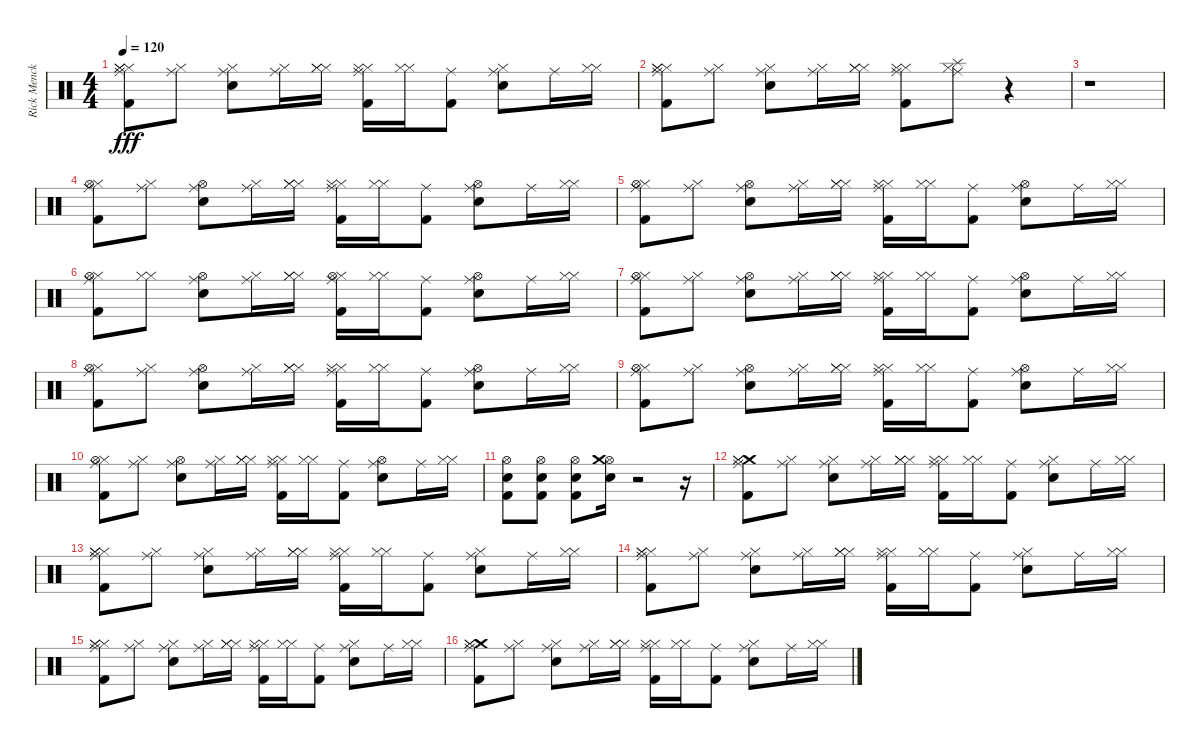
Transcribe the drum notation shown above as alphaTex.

\track ("Rick Menck" "Rick Menck") {instrument percussion}
\staff {score}
\articulation defaults
\ts (4 4)
\tempo 120
\clef neutral
\ks c
("Ride (middle)" "Hi-Hat (closed)" "Kick (hit) 2" "Hi-Hat (closed)" "Hi-Hat (closed)").8{dy fff} ("Ride (middle)" "Hi-Hat (closed)").8 ("Ride (middle)" "Snare (hit) 2" "Hi-Hat (closed)").8 ("Ride (middle)" "Hi-Hat (closed)").16 ("Hi-Hat (closed)" "Hi-Hat (closed)" "Hi-Hat (closed)").16 ("Ride (middle)" "Kick (hit) 2" "Hi-Hat (closed)" "Hi-Hat (closed)").16 ("Hi-Hat (closed)" "Hi-Hat (closed)").16 ("Ride (middle)" "Kick (hit) 2").8 ("Ride (middle)" "Snare (hit) 2" "Hi-Hat (closed)").8 "Ride (middle)".16 ("Hi-Hat (closed)" "Hi-Hat (closed)").16 |
("Ride (middle)" "Hi-Hat (closed)" "Kick (hit) 2" "Hi-Hat (closed)" "Hi-Hat (closed)").8 ("Ride (middle)" "Hi-Hat (closed)").8 ("Ride (middle)" "Snare (hit) 2" "Hi-Hat (closed)").8 ("Ride (middle)" "Hi-Hat (closed)").16 ("Hi-Hat (closed)" "Hi-Hat (closed)" "Hi-Hat (closed)").16 ("Ride (middle)" "Kick (hit) 2" "Hi-Hat (closed)" "Hi-Hat (closed)").8 ("Ride (middle)" "Hi-Hat (closed)" "Splash (hit)").8 r.4 |
r.1 |
("Ride (middle)" "Kick (hit) 2" "Hi-Hat (closed)" "Hi-Hat (open)").8 ("Ride (middle)" "Hi-Hat (closed)").8 ("Ride (middle)" "Snare (hit) 2" "Hi-Hat (open)").8 ("Ride (middle)" "Hi-Hat (closed)").16 ("Hi-Hat (closed)" "Hi-Hat (closed)" "Hi-Hat (closed)").16 ("Ride (middle)" "Kick (hit) 2" "Hi-Hat (closed)" "Hi-Hat (closed)").16 ("Hi-Hat (closed)" "Hi-Hat (closed)").16 ("Ride (middle)" "Kick (hit) 2").8 ("Ride (middle)" "Snare (hit) 2" "Hi-Hat (open)").8 "Ride (middle)".16 ("Hi-Hat (closed)" "Hi-Hat (closed)").16 |
("Ride (middle)" "Kick (hit) 2" "Hi-Hat (closed)" "Hi-Hat (open)").8 ("Ride (middle)" "Hi-Hat (closed)").8 ("Ride (middle)" "Snare (hit) 2" "Hi-Hat (open)").8 ("Ride (middle)" "Hi-Hat (closed)").16 ("Hi-Hat (closed)" "Hi-Hat (closed)" "Hi-Hat (closed)").16 ("Ride (middle)" "Kick (hit) 2" "Hi-Hat (closed)" "Hi-Hat (closed)").16 ("Hi-Hat (closed)" "Hi-Hat (closed)").16 ("Ride (middle)" "Kick (hit) 2").8 ("Ride (middle)" "Snare (hit) 2" "Hi-Hat (open)").8 "Ride (middle)".16 ("Hi-Hat (closed)" "Hi-Hat (closed)").16 |
("Ride (middle)" "Kick (hit) 2" "Hi-Hat (closed)" "Hi-Hat (open)").8 ("Hi-Hat (closed)" "Hi-Hat (closed)").8 ("Ride (middle)" "Snare (hit) 2" "Hi-Hat (open)").8 ("Ride (middle)" "Hi-Hat (closed)").16 ("Hi-Hat (closed)" "Hi-Hat (closed)" "Hi-Hat (closed)").16 ("Ride (middle)" "Kick (hit) 2" "Hi-Hat (closed)" "Hi-Hat (open)").16 ("Hi-Hat (closed)" "Hi-Hat (closed)").16 ("Ride (middle)" "Kick (hit) 2").8 ("Ride (middle)" "Snare (hit) 2" "Hi-Hat (open)").8 "Ride (middle)".16 ("Hi-Hat (closed)" "Hi-Hat (closed)").16 |
("Ride (middle)" "Kick (hit) 2" "Hi-Hat (closed)" "Hi-Hat (open)").8 ("Ride (middle)" "Hi-Hat (closed)").8 ("Ride (middle)" "Snare (hit) 2" "Hi-Hat (open)").8 ("Ride (middle)" "Hi-Hat (closed)").16 ("Hi-Hat (closed)" "Hi-Hat (closed)" "Hi-Hat (closed)").16 ("Ride (middle)" "Kick (hit) 2" "Hi-Hat (closed)" "Hi-Hat (closed)").16 ("Hi-Hat (closed)" "Hi-Hat (closed)").16 ("Ride (middle)" "Kick (hit) 2").8 ("Ride (middle)" "Snare (hit) 2" "Hi-Hat (open)").8 "Ride (middle)".16 ("Hi-Hat (closed)" "Hi-Hat (closed)").16 |
("Ride (middle)" "Kick (hit) 2" "Hi-Hat (closed)" "Hi-Hat (open)").8 ("Ride (middle)" "Hi-Hat (closed)").8 ("Ride (middle)" "Snare (hit) 2" "Hi-Hat (open)").8 ("Ride (middle)" "Hi-Hat (closed)").16 ("Hi-Hat (closed)" "Hi-Hat (closed)" "Hi-Hat (closed)").16 ("Ride (middle)" "Kick (hit) 2" "Hi-Hat (closed)" "Hi-Hat (closed)").16 ("Hi-Hat (closed)" "Hi-Hat (closed)").16 ("Ride (middle)" "Kick (hit) 2").8 ("Ride (middle)" "Snare (hit) 2" "Hi-Hat (open)").8 "Ride (middle)".16 ("Hi-Hat (closed)" "Hi-Hat (closed)").16 |
("Ride (middle)" "Kick (hit) 2" "Hi-Hat (closed)" "Hi-Hat (open)").8 ("Ride (middle)" "Hi-Hat (closed)").8 ("Ride (middle)" "Snare (hit) 2" "Hi-Hat (open)").8 ("Ride (middle)" "Hi-Hat (closed)").16 ("Hi-Hat (closed)" "Hi-Hat (closed)" "Hi-Hat (closed)").16 ("Ride (middle)" "Kick (hit) 2" "Hi-Hat (closed)" "Hi-Hat (closed)").16 ("Hi-Hat (closed)" "Hi-Hat (closed)").16 ("Ride (middle)" "Kick (hit) 2").8 ("Ride (middle)" "Snare (hit) 2" "Hi-Hat (open)").8 "Ride (middle)".16 ("Hi-Hat (closed)" "Hi-Hat (closed)").16 |
("Ride (middle)" "Kick (hit) 2" "Hi-Hat (closed)" "Hi-Hat (open)").8 ("Ride (middle)" "Hi-Hat (closed)").8 ("Ride (middle)" "Snare (hit) 2" "Hi-Hat (open)").8 ("Ride (middle)" "Hi-Hat (closed)").16 ("Hi-Hat (closed)" "Hi-Hat (closed)" "Hi-Hat (closed)").16 ("Ride (middle)" "Kick (hit) 2" "Hi-Hat (closed)" "Hi-Hat (closed)").16 ("Hi-Hat (closed)" "Hi-Hat (closed)").16 ("Ride (middle)" "Kick (hit) 2").8 ("Ride (middle)" "Snare (hit) 2" "Hi-Hat (open)").8 "Ride (middle)".16 ("Hi-Hat (closed)" "Hi-Hat (closed)").16 |
("Hi-Hat (open)" "Kick (hit) 2" "Snare (hit) 2").8 ("Hi-Hat (open)" "Kick (hit) 2" "Snare (hit) 2").8 ("Hi-Hat (open)" "Kick (hit) 2" "Snare (hit) 2").8 ("Hi-Hat (open)" "Crash medium (hit)" "Snare (hit) 2").16 r.2 r.16 |
("Ride (middle)" "Crash medium (hit)" "Kick (hit) 2" "Hi-Hat (closed)" "Hi-Hat (closed)").8 ("Ride (middle)" "Hi-Hat (closed)").8 ("Ride (middle)" "Snare (hit) 2" "Hi-Hat (closed)").8 ("Ride (middle)" "Hi-Hat (closed)").16 ("Hi-Hat (closed)" "Hi-Hat (closed)" "Hi-Hat (closed)").16 ("Ride (middle)" "Kick (hit) 2" "Hi-Hat (closed)" "Hi-Hat (closed)").16 ("Hi-Hat (closed)" "Hi-Hat (closed)").16 ("Ride (middle)" "Kick (hit) 2").8 ("Ride (middle)" "Snare (hit) 2" "Hi-Hat (closed)").8 "Ride (middle)".16 ("Hi-Hat (closed)" "Hi-Hat (closed)").16 |
("Ride (middle)" "Hi-Hat (closed)" "Kick (hit) 2" "Hi-Hat (closed)" "Hi-Hat (closed)").8 ("Ride (middle)" "Hi-Hat (closed)").8 ("Ride (middle)" "Snare (hit) 2" "Hi-Hat (closed)").8 ("Ride (middle)" "Hi-Hat (closed)").16 ("Hi-Hat (closed)" "Hi-Hat (closed)" "Hi-Hat (closed)").16 ("Ride (middle)" "Kick (hit) 2" "Hi-Hat (closed)" "Hi-Hat (closed)").16 ("Hi-Hat (closed)" "Hi-Hat (closed)").16 ("Ride (middle)" "Kick (hit) 2").8 ("Ride (middle)" "Snare (hit) 2" "Hi-Hat (closed)").8 "Ride (middle)".16 ("Hi-Hat (closed)" "Hi-Hat (closed)").16 |
("Ride (middle)" "Hi-Hat (closed)" "Kick (hit) 2" "Hi-Hat (closed)" "Hi-Hat (closed)").8 ("Ride (middle)" "Hi-Hat (closed)").8 ("Ride (middle)" "Snare (hit) 2" "Hi-Hat (closed)").8 ("Ride (middle)" "Hi-Hat (closed)").16 ("Hi-Hat (closed)" "Hi-Hat (closed)" "Hi-Hat (closed)").16 ("Ride (middle)" "Kick (hit) 2" "Hi-Hat (closed)" "Hi-Hat (closed)").16 ("Hi-Hat (closed)" "Hi-Hat (closed)").16 ("Ride (middle)" "Kick (hit) 2").8 ("Ride (middle)" "Snare (hit) 2" "Hi-Hat (closed)").8 "Ride (middle)".16 ("Hi-Hat (closed)" "Hi-Hat (closed)").16 |
("Ride (middle)" "Hi-Hat (closed)" "Kick (hit) 2" "Hi-Hat (closed)" "Hi-Hat (closed)").8 ("Ride (middle)" "Hi-Hat (closed)").8 ("Ride (middle)" "Snare (hit) 2" "Hi-Hat (closed)").8 ("Ride (middle)" "Hi-Hat (closed)").16 ("Hi-Hat (closed)" "Hi-Hat (closed)" "Hi-Hat (closed)").16 ("Ride (middle)" "Kick (hit) 2" "Hi-Hat (closed)" "Hi-Hat (closed)").16 ("Hi-Hat (closed)" "Hi-Hat (closed)").16 ("Ride (middle)" "Kick (hit) 2").8 ("Ride (middle)" "Snare (hit) 2" "Hi-Hat (closed)").8 "Ride (middle)".16 ("Hi-Hat (closed)" "Hi-Hat (closed)").16 |
("Ride (middle)" "Crash medium (hit)" "Kick (hit) 2" "Hi-Hat (closed)" "Hi-Hat (closed)").8 ("Ride (middle)" "Hi-Hat (closed)").8 ("Ride (middle)" "Snare (hit) 2" "Hi-Hat (closed)").8 ("Ride (middle)" "Hi-Hat (closed)").16 ("Hi-Hat (closed)" "Hi-Hat (closed)" "Hi-Hat (closed)").16 ("Ride (middle)" "Kick (hit) 2" "Hi-Hat (closed)" "Hi-Hat (closed)").16 ("Hi-Hat (closed)" "Hi-Hat (closed)").16 ("Ride (middle)" "Kick (hit) 2").8 ("Ride (middle)" "Snare (hit) 2" "Hi-Hat (closed)").8 "Ride (middle)".16 ("Hi-Hat (closed)" "Hi-Hat (closed)").16
